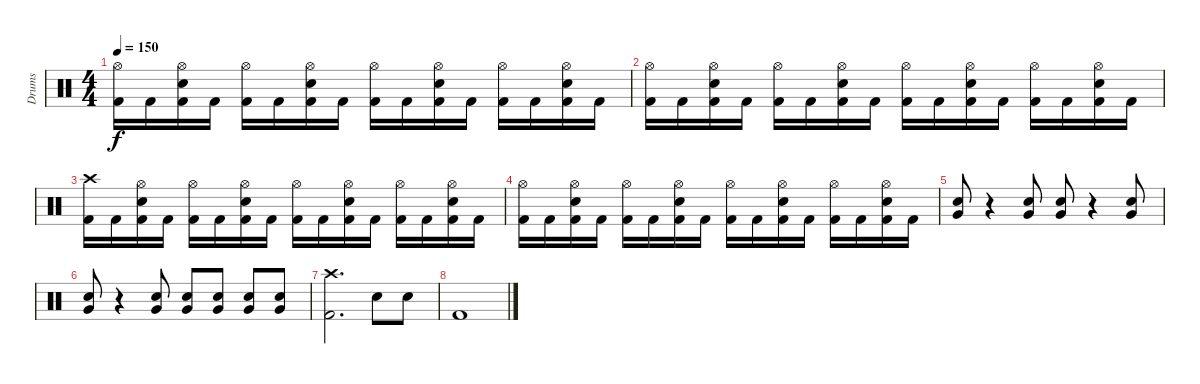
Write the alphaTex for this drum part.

\track ("Drums" "Drums") {instrument percussion}
\staff {score}
\articulation defaults
\ts (4 4)
\tempo 150
\clef neutral
\ks c
("Hi-Hat (open)" "Kick (hit) 2").16{dy f} "Kick (hit) 2".16 ("Hi-Hat (open)" "Electric Snare (hit)" "Kick (hit) 2").16 "Kick (hit) 2".16 ("Hi-Hat (open)" "Kick (hit) 2").16 "Kick (hit) 2".16 ("Hi-Hat (open)" "Electric Snare (hit)" "Kick (hit) 2").16 "Kick (hit) 2".16 ("Hi-Hat (open)" "Kick (hit) 2").16 "Kick (hit) 2".16 ("Hi-Hat (open)" "Electric Snare (hit)" "Kick (hit) 2").16 "Kick (hit) 2".16 ("Hi-Hat (open)" "Kick (hit) 2").16 "Kick (hit) 2".16 ("Hi-Hat (open)" "Electric Snare (hit)" "Kick (hit) 2").16 "Kick (hit) 2".16 |
("Hi-Hat (open)" "Kick (hit) 2").16 "Kick (hit) 2".16 ("Hi-Hat (open)" "Electric Snare (hit)" "Kick (hit) 2").16 "Kick (hit) 2".16 ("Hi-Hat (open)" "Kick (hit) 2").16 "Kick (hit) 2".16 ("Hi-Hat (open)" "Electric Snare (hit)" "Kick (hit) 2").16 "Kick (hit) 2".16 ("Hi-Hat (open)" "Kick (hit) 2").16 "Kick (hit) 2".16 ("Hi-Hat (open)" "Electric Snare (hit)" "Kick (hit) 2").16 "Kick (hit) 2".16 ("Hi-Hat (open)" "Kick (hit) 2").16 "Kick (hit) 2".16 ("Hi-Hat (open)" "Electric Snare (hit)" "Kick (hit) 2").16 "Kick (hit) 2".16 |
("Crash high (hit)" "Kick (hit) 2").16 "Kick (hit) 2".16 ("Hi-Hat (open)" "Electric Snare (hit)" "Kick (hit) 2").16 "Kick (hit) 2".16 ("Hi-Hat (open)" "Kick (hit) 2").16 "Kick (hit) 2".16 ("Hi-Hat (open)" "Electric Snare (hit)" "Kick (hit) 2").16 "Kick (hit) 2".16 ("Hi-Hat (open)" "Kick (hit) 2").16 "Kick (hit) 2".16 ("Hi-Hat (open)" "Electric Snare (hit)" "Kick (hit) 2").16 "Kick (hit) 2".16 ("Hi-Hat (open)" "Kick (hit) 2").16 "Kick (hit) 2".16 ("Hi-Hat (open)" "Electric Snare (hit)" "Kick (hit) 2").16 "Kick (hit) 2".16 |
("Hi-Hat (open)" "Kick (hit) 2").16 "Kick (hit) 2".16 ("Hi-Hat (open)" "Electric Snare (hit)" "Kick (hit) 2").16 "Kick (hit) 2".16 ("Hi-Hat (open)" "Kick (hit) 2").16 "Kick (hit) 2".16 ("Hi-Hat (open)" "Electric Snare (hit)" "Kick (hit) 2").16 "Kick (hit) 2".16 ("Hi-Hat (open)" "Kick (hit) 2").16 "Kick (hit) 2".16 ("Hi-Hat (open)" "Electric Snare (hit)" "Kick (hit) 2").16 "Kick (hit) 2".16 ("Hi-Hat (open)" "Kick (hit) 2").16 "Kick (hit) 2".16 ("Hi-Hat (open)" "Electric Snare (hit)" "Kick (hit) 2").16 "Kick (hit) 2".16 |
("Snare (hit) 2" "Very Low Tom (hit)").8 r.4 ("Snare (hit) 2" "Very Low Tom (hit)").8 ("Snare (hit) 2" "Very Low Tom (hit)").8 r.4 ("Snare (hit) 2" "Very Low Tom (hit)").8 |
("Snare (hit) 2" "Very Low Tom (hit)").8 r.4 ("Snare (hit) 2" "Very Low Tom (hit)").8 ("Snare (hit) 2" "Very Low Tom (hit)").8 ("Snare (hit) 2" "Very Low Tom (hit)").8 ("Snare (hit) 2" "Very Low Tom (hit)").8 ("Snare (hit) 2" "Very Low Tom (hit)").8 |
("Crash high (hit)" "Kick (hit) 2").2{d} "Snare (hit) 2".8 "Snare (hit) 2".8 |
"Kick (hit) 2".1
